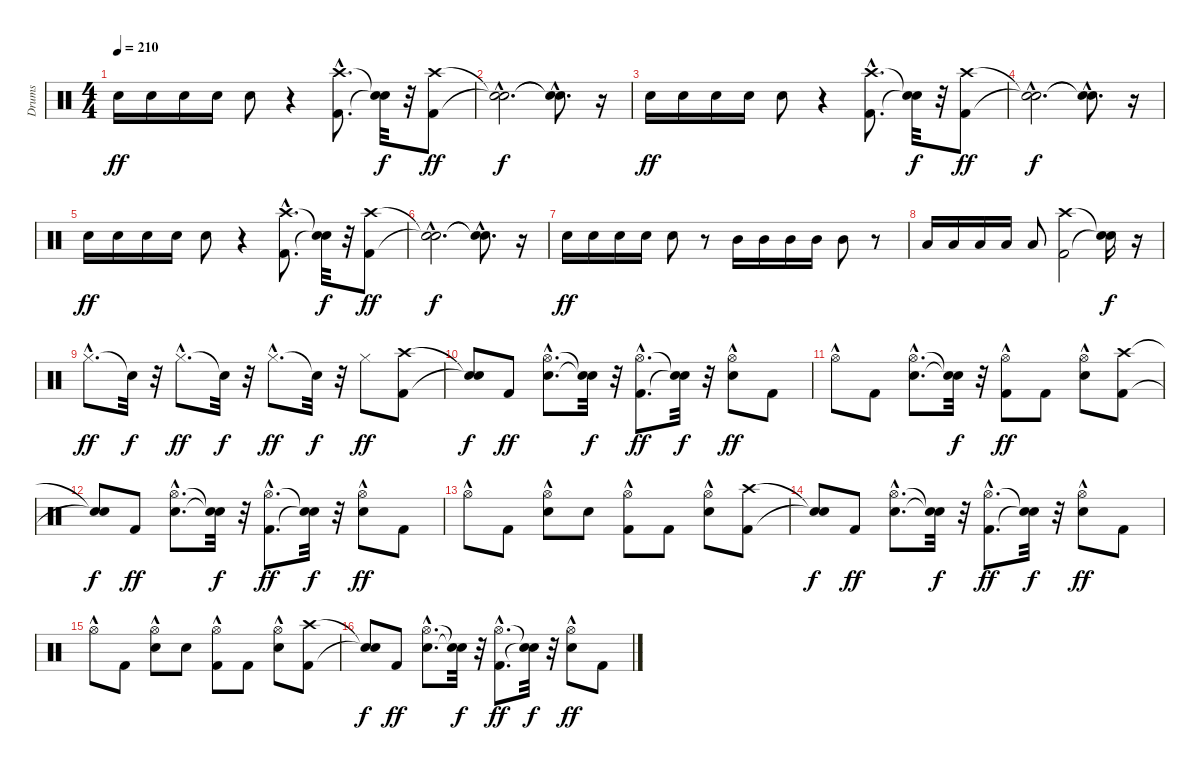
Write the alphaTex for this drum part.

\track ("Drums" "Drums") {instrument percussion}
\staff {score}
\articulation defaults
\ts (4 4)
\tempo 210
\clef neutral
\ks c "Snare (hit) 2".16{dy ff} "Snare (hit) 2".16 "Snare (hit) 2".16 "Snare (hit) 2".16 "Snare (hit) 2".8
r.4 ("Kick (hit) 2"{hac} "Crash high (hit)"{hac}).8{d} ("Snare (hit)"{t} "Snare (hit)"{t}).32{dy f} r.32 ("Kick (hit) 2" "Crash high (hit)").8{dy ff} |
("Snare (hit)"{hac t} "Snare (hit)"{hac t}).2{d dy f} ("Snare (hit)"{hac t} "Snare (hit)"{hac t}).8{d} r.16 |
"Snare (hit) 2".16{dy ff} "Snare (hit) 2".16 "Snare (hit) 2".16 "Snare (hit) 2".16 "Snare (hit) 2".8 r.4 ("Kick (hit) 2"{hac} "Crash high (hit)"{hac}).8{d} ("Snare (hit)"{t} "Snare (hit)"{t}).32{dy f} r.32 ("Kick (hit) 2" "Crash high (hit)").8{dy ff} |
("Snare (hit)"{hac t} "Snare (hit)"{hac t}).2{d dy f} ("Snare (hit)"{hac t} "Snare (hit)"{hac t}).8{d} r.16 |
"Snare (hit) 2".16{dy ff} "Snare (hit) 2".16 "Snare (hit) 2".16 "Snare (hit) 2".16 "Snare (hit) 2".8 r.4 ("Kick (hit) 2"{hac} "Crash high (hit)"{hac}).8{d} ("Snare (hit)"{t} "Snare (hit)"{t}).32{dy f} r.32 ("Kick (hit) 2" "Crash high (hit)").8{dy ff} |
("Snare (hit)"{hac t} "Snare (hit)"{hac t}).2{d dy f} ("Snare (hit)"{hac t} "Snare (hit)"{hac t}).8{d} r.16 |
"Snare (hit) 2".16{dy ff} "Snare (hit) 2".16 "Snare (hit) 2".16 "Snare (hit) 2".16 "Snare (hit) 2".8 r.8 "Mid Tom (hit)".16 "Mid Tom (hit)".16 "Mid Tom (hit)".16 "Mid Tom (hit)".16 "Mid Tom (hit)".8 r.8 |
"Low Tom (hit)".16 "Low Tom (hit)".16 "Low Tom (hit)".16 "Low Tom (hit)".16 "Low Tom (hit)".8 ("Kick (hit) 2" "Crash high (hit)").2 ("Snare (hit)"{t} "Snare (hit)"{t}).16{dy f} r.16 |
"Hi-Hat (closed)"{hac}.8{d dy ff} "Snare (hit)"{t}.32{dy f} r.32 "Hi-Hat (closed)"{hac}.8{d dy ff} "Snare (hit)"{t}.32{dy f} r.32 "Hi-Hat (closed)"{hac}.8{d dy ff} "Snare (hit)"{t}.32{dy f} r.32 "Hi-Hat (closed)".8{dy ff} ("Kick (hit) 2" "Crash high (hit)").8 |
("Snare (hit)"{t} "Snare (hit)"{t}).8{dy f} "Kick (hit) 2".8{dy ff} ("Snare (hit) 2"{hac} "Hi-Hat (open)"{hac}).8{d} ("Snare (hit)"{t} "Snare (hit)"{t}).32{dy f} r.32 ("Kick (hit) 2"{hac} "Hi-Hat (open)"{hac}).8{d dy ff} ("Snare (hit)"{t} "Snare (hit)"{t}).32{dy f} r.32 ("Snare (hit) 2" "Hi-Hat (open)"{hac}).8{dy ff} "Kick (hit) 2".8 |
"Hi-Hat (open)"{hac}.8 "Kick (hit) 2".8 ("Snare (hit) 2"{hac} "Hi-Hat (open)"{hac}).8{d} ("Snare (hit)"{t} "Snare (hit)"{t}).32{dy f} r.32 ("Kick (hit) 2" "Hi-Hat (open)"{hac}).8{dy ff} "Kick (hit) 2".8 ("Snare (hit) 2" "Hi-Hat (open)"{hac}).8 ("Kick (hit) 2" "Crash high (hit)").8 |
("Snare (hit)"{t} "Snare (hit)"{t}).8{dy f} "Kick (hit) 2".8{dy ff} ("Snare (hit) 2"{hac} "Hi-Hat (open)"{hac}).8{d} ("Snare (hit)"{t} "Snare (hit)"{t}).32{dy f} r.32 ("Kick (hit) 2"{hac} "Hi-Hat (open)"{hac}).8{d dy ff} ("Snare (hit)"{t} "Snare (hit)"{t}).32{dy f} r.32 ("Snare (hit) 2" "Hi-Hat (open)"{hac}).8{dy ff} "Kick (hit) 2".8 |
"Hi-Hat (open)"{hac}.8 "Kick (hit) 2".8 ("Snare (hit) 2" "Hi-Hat (open)"{hac}).8 "Snare (hit) 2".8 ("Kick (hit) 2" "Hi-Hat (open)"{hac}).8 "Kick (hit) 2".8 ("Snare (hit) 2" "Hi-Hat (open)"{hac}).8 ("Kick (hit) 2" "Crash high (hit)").8 |
("Snare (hit)"{t} "Snare (hit)"{t}).8{dy f} "Kick (hit) 2".8{dy ff} ("Snare (hit) 2"{hac} "Hi-Hat (open)"{hac}).8{d} ("Snare (hit)"{t} "Snare (hit)"{t}).32{dy f} r.32 ("Kick (hit) 2"{hac} "Hi-Hat (open)"{hac}).8{d dy ff} ("Snare (hit)"{t} "Snare (hit)"{t}).32{dy f} r.32 ("Snare (hit) 2" "Hi-Hat (open)"{hac}).8{dy ff} "Kick (hit) 2".8 |
"Hi-Hat (open)"{hac}.8 "Kick (hit) 2".8 ("Snare (hit) 2" "Hi-Hat (open)"{hac}).8 "Snare (hit) 2".8 ("Kick (hit) 2" "Hi-Hat (open)"{hac}).8 "Kick (hit) 2".8 ("Snare (hit) 2" "Hi-Hat (open)"{hac}).8 ("Kick (hit) 2" "Crash high (hit)").8 |
("Snare (hit)"{t} "Snare (hit)"{t}).8{dy f} "Kick (hit) 2".8{dy ff} ("Snare (hit) 2"{hac} "Hi-Hat (open)"{hac}).8{d} ("Snare (hit)"{t} "Snare (hit)"{t}).32{dy f} r.32 ("Kick (hit) 2"{hac} "Hi-Hat (open)"{hac}).8{d dy ff} ("Snare (hit)"{t} "Snare (hit)"{t}).32{dy f} r.32 ("Snare (hit) 2" "Hi-Hat (open)"{hac}).8{dy ff} "Kick (hit) 2".8
